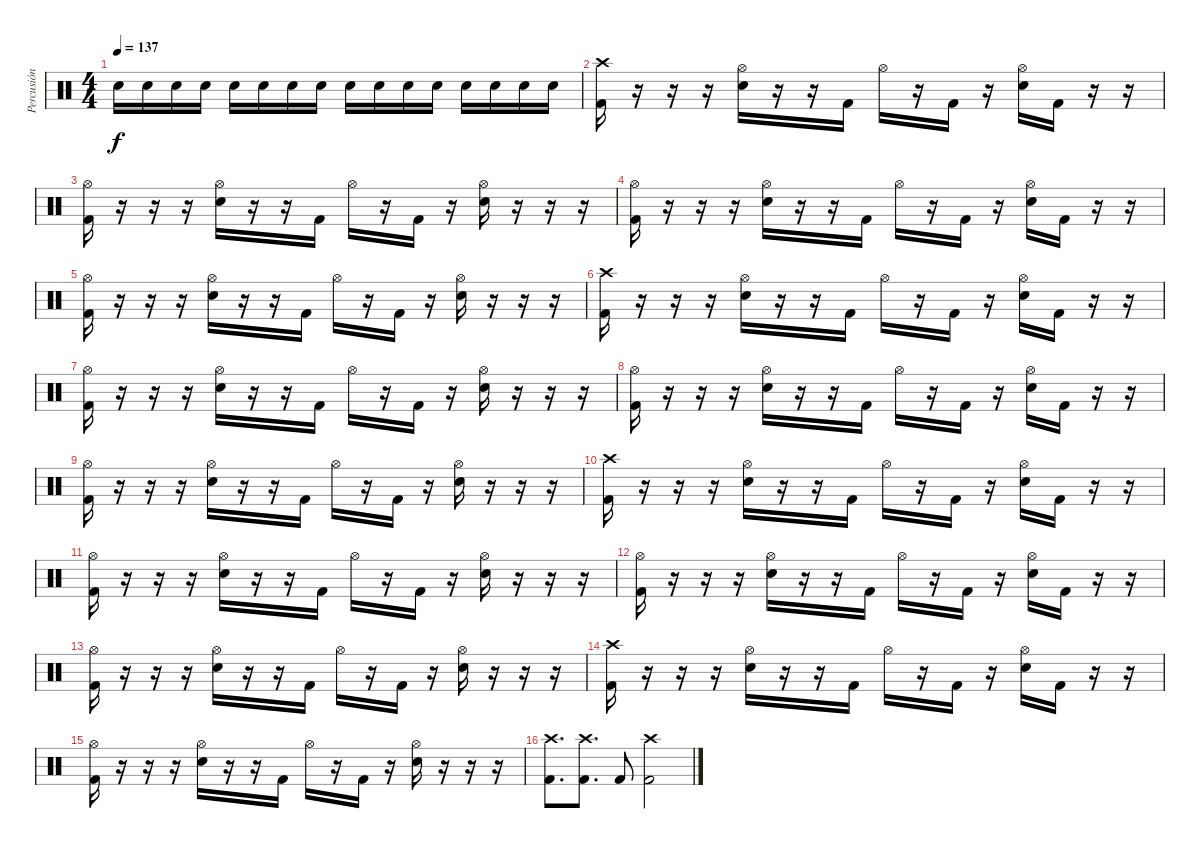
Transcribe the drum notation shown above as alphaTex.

\track ("Percusión" "Percusión") {instrument percussion}
\staff {score}
\articulation defaults
\ts (4 4)
\tempo 137
\clef neutral
\ks c "Electric Snare (hit)".16{dy f} "Electric Snare (hit)".16 "Electric Snare (hit)".16 "Electric Snare (hit)".16 "Electric Snare (hit)".16 "Electric Snare (hit)".16 "Electric Snare (hit)".16 "Electric Snare (hit)".16 "Electric Snare (hit)".16 "Electric Snare (hit)".16 "Electric Snare (hit)".16 "Electric Snare (hit)".16 "Electric Snare (hit)".16 "Electric Snare (hit)".16 "Electric Snare (hit)".16 "Electric Snare (hit)".16
|
("Crash high (hit)" "Kick (hit) 2").16 r.16 r.16 r.16 ("Hi-Hat (open)" "Electric Snare (hit)").16 r.16 r.16 "Kick (hit) 2".16 "Hi-Hat (open)".16 r.16 "Kick (hit) 2".16 r.16 ("Hi-Hat (open)" "Electric Snare (hit)").16 "Kick (hit) 2".16 r.16 r.16 |
("Hi-Hat (open)" "Kick (hit) 2").16 r.16 r.16 r.16 ("Hi-Hat (open)" "Electric Snare (hit)").16 r.16 r.16 "Kick (hit) 2".16 "Hi-Hat (open)".16 r.16 "Kick (hit) 2".16 r.16 ("Hi-Hat (open)" "Electric Snare (hit)").16 r.16 r.16 r.16 |
("Hi-Hat (open)" "Kick (hit) 2").16 r.16 r.16 r.16 ("Hi-Hat (open)" "Electric Snare (hit)").16 r.16 r.16 "Kick (hit) 2".16 "Hi-Hat (open)".16 r.16 "Kick (hit) 2".16 r.16 ("Hi-Hat (open)" "Electric Snare (hit)").16 "Kick (hit) 2".16 r.16 r.16 |
("Hi-Hat (open)" "Kick (hit) 2").16 r.16 r.16 r.16 ("Hi-Hat (open)" "Electric Snare (hit)").16 r.16 r.16 "Kick (hit) 2".16 "Hi-Hat (open)".16 r.16 "Kick (hit) 2".16 r.16 ("Hi-Hat (open)" "Electric Snare (hit)").16 r.16 r.16 r.16 |
("Crash high (hit)" "Kick (hit) 2").16 r.16 r.16 r.16 ("Hi-Hat (open)" "Electric Snare (hit)").16 r.16 r.16 "Kick (hit) 2".16 "Hi-Hat (open)".16 r.16 "Kick (hit) 2".16 r.16 ("Hi-Hat (open)" "Electric Snare (hit)").16 "Kick (hit) 2".16 r.16 r.16 |
("Hi-Hat (open)" "Kick (hit) 2").16 r.16 r.16 r.16 ("Hi-Hat (open)" "Electric Snare (hit)").16 r.16 r.16 "Kick (hit) 2".16 "Hi-Hat (open)".16 r.16 "Kick (hit) 2".16 r.16 ("Hi-Hat (open)" "Electric Snare (hit)").16 r.16 r.16 r.16 |
("Hi-Hat (open)" "Kick (hit) 2").16 r.16 r.16 r.16 ("Hi-Hat (open)" "Electric Snare (hit)").16 r.16 r.16 "Kick (hit) 2".16 "Hi-Hat (open)".16 r.16 "Kick (hit) 2".16 r.16 ("Hi-Hat (open)" "Electric Snare (hit)").16 "Kick (hit) 2".16 r.16 r.16 |
("Hi-Hat (open)" "Kick (hit) 2").16 r.16 r.16 r.16 ("Hi-Hat (open)" "Electric Snare (hit)").16 r.16 r.16 "Kick (hit) 2".16 "Hi-Hat (open)".16 r.16 "Kick (hit) 2".16 r.16 ("Hi-Hat (open)" "Electric Snare (hit)").16 r.16 r.16 r.16 |
("Crash high (hit)" "Kick (hit) 2").16 r.16 r.16 r.16 ("Hi-Hat (open)" "Electric Snare (hit)").16 r.16 r.16 "Kick (hit) 2".16 "Hi-Hat (open)".16 r.16 "Kick (hit) 2".16 r.16 ("Hi-Hat (open)" "Electric Snare (hit)").16 "Kick (hit) 2".16 r.16 r.16 |
("Hi-Hat (open)" "Kick (hit) 2").16 r.16 r.16 r.16 ("Hi-Hat (open)" "Electric Snare (hit)").16 r.16 r.16 "Kick (hit) 2".16 "Hi-Hat (open)".16 r.16 "Kick (hit) 2".16 r.16 ("Hi-Hat (open)" "Electric Snare (hit)").16 r.16 r.16 r.16 |
("Hi-Hat (open)" "Kick (hit) 2").16 r.16 r.16 r.16 ("Hi-Hat (open)" "Electric Snare (hit)").16 r.16 r.16 "Kick (hit) 2".16 "Hi-Hat (open)".16 r.16 "Kick (hit) 2".16 r.16 ("Hi-Hat (open)" "Electric Snare (hit)").16 "Kick (hit) 2".16 r.16 r.16 |
("Hi-Hat (open)" "Kick (hit) 2").16 r.16 r.16 r.16 ("Hi-Hat (open)" "Electric Snare (hit)").16 r.16 r.16 "Kick (hit) 2".16 "Hi-Hat (open)".16 r.16 "Kick (hit) 2".16 r.16 ("Hi-Hat (open)" "Electric Snare (hit)").16 r.16 r.16 r.16 |
("Crash high (hit)" "Kick (hit) 2").16 r.16 r.16 r.16 ("Hi-Hat (open)" "Electric Snare (hit)").16 r.16 r.16 "Kick (hit) 2".16 "Hi-Hat (open)".16 r.16 "Kick (hit) 2".16 r.16 ("Hi-Hat (open)" "Electric Snare (hit)").16 "Kick (hit) 2".16 r.16 r.16 |
("Hi-Hat (open)" "Kick (hit) 2").16 r.16 r.16 r.16 ("Hi-Hat (open)" "Electric Snare (hit)").16 r.16 r.16 "Kick (hit) 2".16 "Hi-Hat (open)".16 r.16 "Kick (hit) 2".16 r.16 ("Hi-Hat (open)" "Electric Snare (hit)").16 r.16 r.16 r.16 |
("Crash high (hit)" "Kick (hit) 2").8{d} ("Crash high (hit)" "Kick (hit) 2").8{d} "Kick (hit) 2".8 ("Crash high (hit)" "Kick (hit) 2").2
